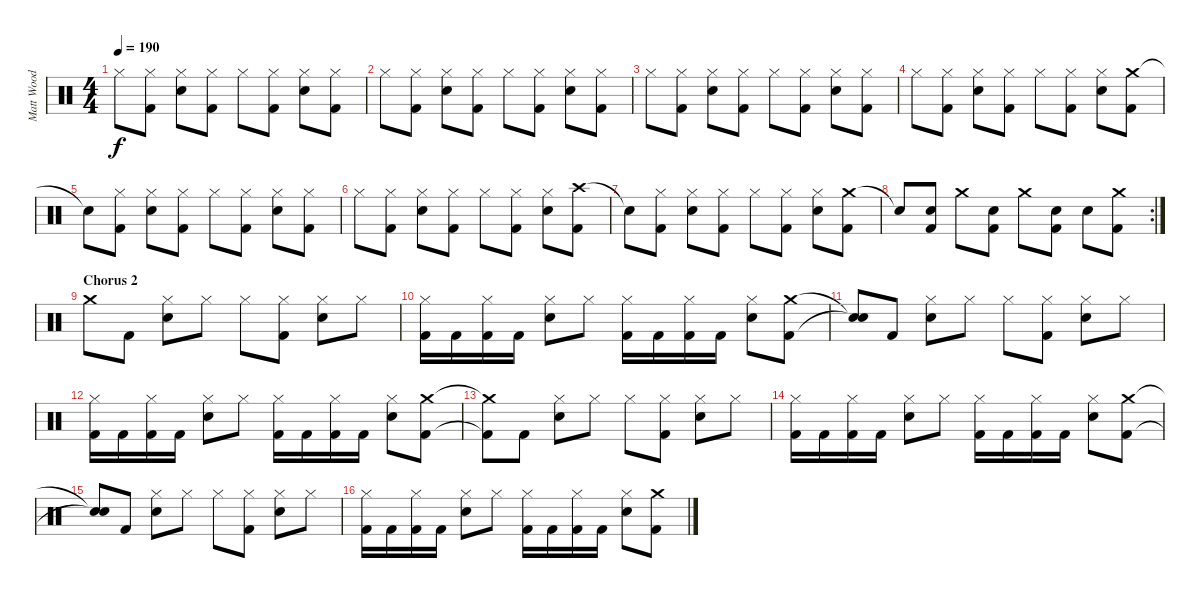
\track ("Matt Wood" "Matt Wood") {instrument percussion}
\staff {score}
\articulation defaults
\ts (4 4)
\tempo 190
\clef neutral
\ks c "Hi-Hat (closed)".8{dy f}
("Hi-Hat (closed)" "Kick (hit) 2").8 ("Hi-Hat (closed)" "Snare (hit) 2").8 ("Hi-Hat (closed)" "Kick (hit) 2").8 "Hi-Hat (closed)".8 ("Hi-Hat (closed)" "Kick (hit) 2").8 ("Hi-Hat (closed)" "Snare (hit) 2").8 ("Hi-Hat (closed)" "Kick (hit) 2").8 |
"Hi-Hat (closed)".8 ("Hi-Hat (closed)" "Kick (hit) 2").8 ("Hi-Hat (closed)" "Snare (hit) 2").8 ("Hi-Hat (closed)" "Kick (hit) 2").8 "Hi-Hat (closed)".8 ("Hi-Hat (closed)" "Kick (hit) 2").8 ("Hi-Hat (closed)" "Snare (hit) 2").8 ("Hi-Hat (closed)" "Kick (hit) 2").8 |
"Hi-Hat (closed)".8 ("Hi-Hat (closed)" "Kick (hit) 2").8 ("Hi-Hat (closed)" "Snare (hit) 2").8 ("Hi-Hat (closed)" "Kick (hit) 2").8 "Hi-Hat (closed)".8 ("Hi-Hat (closed)" "Kick (hit) 2").8 ("Hi-Hat (closed)" "Snare (hit) 2").8 ("Hi-Hat (closed)" "Kick (hit) 2").8 |
"Hi-Hat (closed)".8 ("Hi-Hat (closed)" "Kick (hit) 2").8 ("Hi-Hat (closed)" "Snare (hit) 2").8 ("Hi-Hat (closed)" "Kick (hit) 2").8 "Hi-Hat (closed)".8 ("Hi-Hat (closed)" "Kick (hit) 2").8 ("Hi-Hat (closed)" "Snare (hit) 2").8 ("Crash medium (hit)" "Kick (hit) 2").8 |
"Snare (hit)"{t}.8 ("Hi-Hat (closed)" "Kick (hit) 2").8 ("Hi-Hat (closed)" "Snare (hit) 2").8 ("Hi-Hat (closed)" "Kick (hit) 2").8 "Hi-Hat (closed)".8 ("Hi-Hat (closed)" "Kick (hit) 2").8 ("Hi-Hat (closed)" "Snare (hit) 2").8 ("Hi-Hat (closed)" "Kick (hit) 2").8 |
"Hi-Hat (closed)".8 ("Hi-Hat (closed)" "Kick (hit) 2").8 ("Hi-Hat (closed)" "Snare (hit) 2").8 ("Hi-Hat (closed)" "Kick (hit) 2").8 "Hi-Hat (closed)".8 ("Hi-Hat (closed)" "Kick (hit) 2").8 ("Hi-Hat (closed)" "Snare (hit) 2").8 ("Crash high (hit)" "Kick (hit) 2").8 |
"Snare (hit)"{t}.8 ("Hi-Hat (closed)" "Kick (hit) 2").8 ("Hi-Hat (closed)" "Snare (hit) 2").8 ("Hi-Hat (closed)" "Kick (hit) 2").8 "Hi-Hat (closed)".8 ("Hi-Hat (closed)" "Kick (hit) 2").8 ("Hi-Hat (closed)" "Snare (hit) 2").8 ("Crash medium (hit)" "Kick (hit) 2").8 |
\rc 2 "Snare (hit)"{t}.8
("Snare (hit) 2" "Kick (hit) 2").8 "Crash medium (hit)".8 ("Snare (hit) 2" "Kick (hit) 2").8 "Crash medium (hit)".8 ("Snare (hit) 2" "Kick (hit) 2").8 "Snare (hit) 2".8 ("Crash medium (hit)" "Kick (hit) 2").8 |
\section ("" "Chorus 2")
"Crash medium (hit)".8 "Kick (hit) 2".8 ("Hi-Hat (closed)" "Snare (hit) 2").8 "Hi-Hat (closed)".8 "Hi-Hat (closed)".8 ("Hi-Hat (closed)" "Kick (hit) 2").8 ("Hi-Hat (closed)" "Snare (hit) 2").8 "Hi-Hat (closed)".8 |
("Hi-Hat (closed)" "Kick (hit) 2").16 "Kick (hit) 2".16 ("Hi-Hat (closed)" "Kick (hit) 2").16 "Kick (hit) 2".16 ("Hi-Hat (closed)" "Snare (hit) 2").8 "Hi-Hat (closed)".8 ("Hi-Hat (closed)" "Kick (hit) 2").16 "Kick (hit) 2".16 ("Hi-Hat (closed)" "Kick (hit) 2").16 "Kick (hit) 2".16 ("Hi-Hat (closed)" "Snare (hit) 2").8 ("Crash medium (hit)" "Kick (hit) 2").8 |
("Snare (hit)"{t} "Snare (hit)"{t}).8 "Kick (hit) 2".8 ("Hi-Hat (closed)" "Snare (hit) 2").8 "Hi-Hat (closed)".8 "Hi-Hat (closed)".8 ("Hi-Hat (closed)" "Kick (hit) 2").8 ("Hi-Hat (closed)" "Snare (hit) 2").8 "Hi-Hat (closed)".8 |
("Hi-Hat (closed)" "Kick (hit) 2").16 "Kick (hit) 2".16 ("Hi-Hat (closed)" "Kick (hit) 2").16 "Kick (hit) 2".16 ("Hi-Hat (closed)" "Snare (hit) 2").8 "Hi-Hat (closed)".8 ("Hi-Hat (closed)" "Kick (hit) 2").16 "Kick (hit) 2".16 ("Hi-Hat (closed)" "Kick (hit) 2").16 "Kick (hit) 2".16 ("Hi-Hat (closed)" "Snare (hit) 2").8 ("Crash medium (hit)" "Kick (hit) 2").8 |
("Crash medium (hit)"{t} "Kick (hit) 2"{t}).8 "Kick (hit) 2".8 ("Hi-Hat (closed)" "Snare (hit) 2").8 "Hi-Hat (closed)".8 "Hi-Hat (closed)".8 ("Hi-Hat (closed)" "Kick (hit) 2").8 ("Hi-Hat (closed)" "Snare (hit) 2").8 "Hi-Hat (closed)".8 |
("Hi-Hat (closed)" "Kick (hit) 2").16 "Kick (hit) 2".16 ("Hi-Hat (closed)" "Kick (hit) 2").16 "Kick (hit) 2".16 ("Hi-Hat (closed)" "Snare (hit) 2").8 "Hi-Hat (closed)".8 ("Hi-Hat (closed)" "Kick (hit) 2").16 "Kick (hit) 2".16 ("Hi-Hat (closed)" "Kick (hit) 2").16 "Kick (hit) 2".16 ("Hi-Hat (closed)" "Snare (hit) 2").8 ("Crash medium (hit)" "Kick (hit) 2").8 |
("Snare (hit)"{t} "Snare (hit)"{t}).8 "Kick (hit) 2".8 ("Hi-Hat (closed)" "Snare (hit) 2").8 "Hi-Hat (closed)".8 "Hi-Hat (closed)".8 ("Hi-Hat (closed)" "Kick (hit) 2").8 ("Hi-Hat (closed)" "Snare (hit) 2").8 "Hi-Hat (closed)".8 |
("Hi-Hat (closed)" "Kick (hit) 2").16 "Kick (hit) 2".16 ("Hi-Hat (closed)" "Kick (hit) 2").16 "Kick (hit) 2".16 ("Hi-Hat (closed)" "Snare (hit) 2").8 "Hi-Hat (closed)".8 ("Hi-Hat (closed)" "Kick (hit) 2").16 "Kick (hit) 2".16 ("Hi-Hat (closed)" "Kick (hit) 2").16 "Kick (hit) 2".16 ("Hi-Hat (closed)" "Snare (hit) 2").8 ("Crash medium (hit)" "Kick (hit) 2").8
